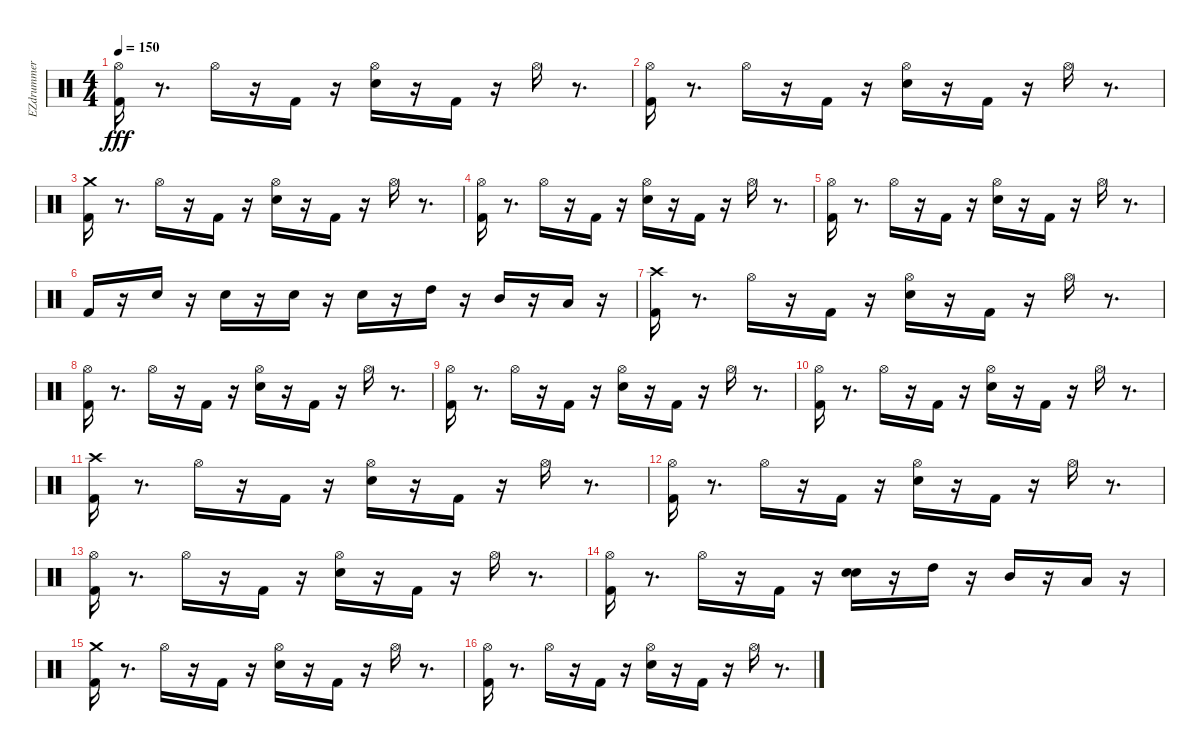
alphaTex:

\track ("EZdrummer 01" "EZdrummer ") {instrument percussion}
\staff {score}
\articulation defaults
\ts (4 4)
\tempo 150
\clef neutral
\ks c
("Hi-Hat (open)" "Kick (hit) 2").16{dy fff} r.8{d} "Hi-Hat (open)".16 r.16 "Kick (hit) 2".16 r.16 ("Hi-Hat (open)" "Electric Snare (hit)").16 r.16 "Kick (hit) 2".16 r.16 "Hi-Hat (open)".16 r.8{d} |
("Hi-Hat (open)" "Kick (hit) 2").16 r.8{d} "Hi-Hat (open)".16 r.16 "Kick (hit) 2".16 r.16 ("Hi-Hat (open)" "Electric Snare (hit)").16 r.16 "Kick (hit) 2".16 r.16 "Hi-Hat (open)".16 r.8{d} |
("Kick (hit) 2" "Crash medium (hit)").16 r.8{d} "Hi-Hat (open)".16 r.16 "Kick (hit) 2".16 r.16 ("Electric Snare (hit)" "Hi-Hat (open)").16 r.16 "Kick (hit) 2".16 r.16 "Hi-Hat (open)".16 r.8{d} |
("Kick (hit) 2" "Hi-Hat (open)").16 r.8{d} "Hi-Hat (open)".16 r.16 "Kick (hit) 2".16 r.16 ("Electric Snare (hit)" "Hi-Hat (open)").16 r.16 "Kick (hit) 2".16 r.16 "Hi-Hat (open)".16 r.8{d} |
("Kick (hit) 2" "Hi-Hat (open)").16 r.8{d} "Hi-Hat (open)".16 r.16 "Kick (hit) 2".16 r.16 ("Electric Snare (hit)" "Hi-Hat (open)").16 r.16 "Kick (hit) 2".16 r.16 "Hi-Hat (open)".16 r.8{d} |
"Kick (hit) 2".16 r.16 "Electric Snare (hit)".16 r.16 "Electric Snare (hit)".16 r.16 "Electric Snare (hit)".16 r.16 "Electric Snare (hit)".16 r.16 "High Tom (hit)".16 r.16 "Mid Tom (hit)".16 r.16 "Low Tom (hit)".16 r.16 |
("Kick (hit) 2" "Crash high (hit)").16 r.8{d} "Hi-Hat (open)".16 r.16 "Kick (hit) 2".16 r.16 ("Electric Snare (hit)" "Hi-Hat (open)").16 r.16 "Kick (hit) 2".16 r.16 "Hi-Hat (open)".16 r.8{d} |
("Kick (hit) 2" "Hi-Hat (open)").16 r.8{d} "Hi-Hat (open)".16 r.16 "Kick (hit) 2".16 r.16 ("Electric Snare (hit)" "Hi-Hat (open)").16 r.16 "Kick (hit) 2".16 r.16 "Hi-Hat (open)".16 r.8{d} |
("Kick (hit) 2" "Hi-Hat (open)").16 r.8{d} "Hi-Hat (open)".16 r.16 "Kick (hit) 2".16 r.16 ("Electric Snare (hit)" "Hi-Hat (open)").16 r.16 "Kick (hit) 2".16 r.16 "Hi-Hat (open)".16 r.8{d} |
("Kick (hit) 2" "Hi-Hat (open)").16 r.8{d} "Hi-Hat (open)".16 r.16 "Kick (hit) 2".16 r.16 ("Electric Snare (hit)" "Hi-Hat (open)").16 r.16 "Kick (hit) 2".16 r.16 "Hi-Hat (open)".16 r.8{d} |
("Kick (hit) 2" "Crash high (hit)").16 r.8{d} "Hi-Hat (open)".16 r.16 "Kick (hit) 2".16 r.16 ("Electric Snare (hit)" "Hi-Hat (open)").16 r.16 "Kick (hit) 2".16 r.16 "Hi-Hat (open)".16 r.8{d} |
("Kick (hit) 2" "Hi-Hat (open)").16 r.8{d} "Hi-Hat (open)".16 r.16 "Kick (hit) 2".16 r.16 ("Electric Snare (hit)" "Hi-Hat (open)").16 r.16 "Kick (hit) 2".16 r.16 "Hi-Hat (open)".16 r.8{d} |
("Kick (hit) 2" "Hi-Hat (open)").16 r.8{d} "Hi-Hat (open)".16 r.16 "Kick (hit) 2".16 r.16 ("Electric Snare (hit)" "Hi-Hat (open)").16 r.16 "Kick (hit) 2".16 r.16 "Hi-Hat (open)".16 r.8{d} |
("Kick (hit) 2" "Hi-Hat (open)").16 r.8{d} "Hi-Hat (open)".16 r.16 "Kick (hit) 2".16 r.16 ("Electric Snare (hit)" "Electric Snare (hit)").16 r.16 "High Tom (hit)".16 r.16 "Mid Tom (hit)".16 r.16 "Low Tom (hit)".16 r.16 |
("Kick (hit) 2" "Crash medium (hit)").16 r.8{d} "Hi-Hat (open)".16 r.16 "Kick (hit) 2".16 r.16 ("Electric Snare (hit)" "Hi-Hat (open)").16 r.16 "Kick (hit) 2".16 r.16 "Hi-Hat (open)".16 r.8{d} |
("Kick (hit) 2" "Hi-Hat (open)").16 r.8{d} "Hi-Hat (open)".16 r.16 "Kick (hit) 2".16 r.16 ("Electric Snare (hit)" "Hi-Hat (open)").16 r.16 "Kick (hit) 2".16 r.16 "Hi-Hat (open)".16 r.8{d}
